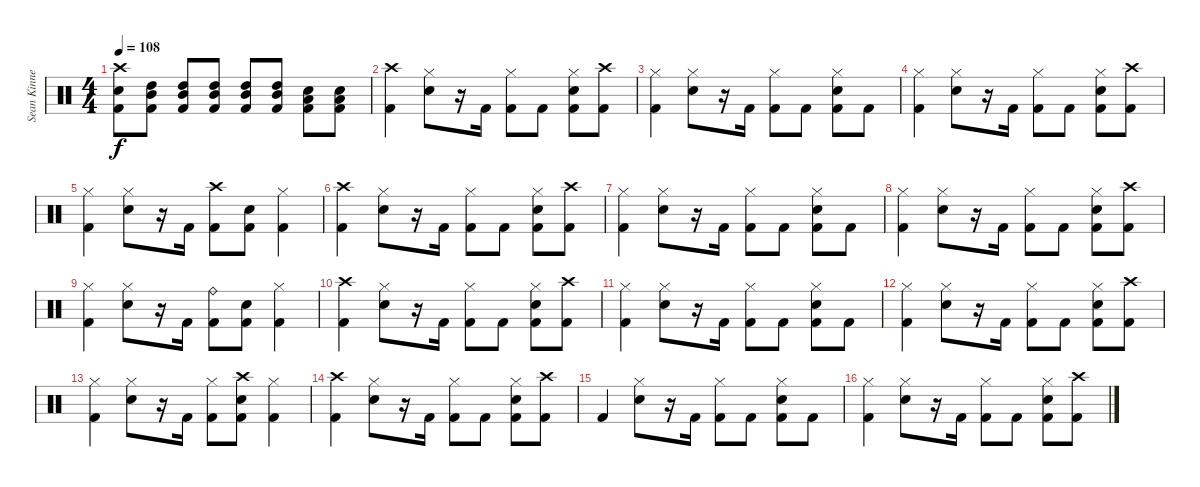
\track ("Sean Kinney - Drums" "Sean Kinne") {instrument percussion}
\staff {score}
\articulation defaults
\ts (4 4)
\tempo 108
\clef neutral
\ks c
("Crash high (hit)" "Electric Snare (hit)" "Kick (hit) 2").8{dy f} ("Mid Tom (hit)" "High Tom (hit)" "Kick (hit) 2").8 ("Mid Tom (hit)" "High Tom (hit)" "Kick (hit) 2").8 ("Mid Tom (hit)" "High Tom (hit)" "Kick (hit) 2").8 ("Mid Tom (hit)" "High Tom (hit)" "Kick (hit) 2").8 ("Mid Tom (hit)" "High Tom (hit)" "Kick (hit) 2").8 ("Electric Snare (hit)" "Low Tom (hit)" "Kick (hit) 2").8 ("Electric Snare (hit)" "Low Tom (hit)" "Kick (hit) 2").8 |
("Crash high (hit)" "Kick (hit) 2").4 ("Hi-Hat (closed)" "Electric Snare (hit)").8 r.16 "Kick (hit) 2".16 ("Hi-Hat (closed)" "Kick (hit) 2").8 "Kick (hit) 2".8 ("Hi-Hat (closed)" "Electric Snare (hit)" "Kick (hit) 2").8 ("Crash high (hit)" "Kick (hit) 2").8 |
("Hi-Hat (closed)" "Kick (hit) 2").4 ("Hi-Hat (closed)" "Electric Snare (hit)").8 r.16 "Kick (hit) 2".16 ("Hi-Hat (closed)" "Kick (hit) 2").8 "Kick (hit) 2".8 ("Hi-Hat (closed)" "Electric Snare (hit)" "Kick (hit) 2").8 "Kick (hit) 2".8 |
("Hi-Hat (closed)" "Kick (hit) 2").4 ("Hi-Hat (closed)" "Electric Snare (hit)").8 r.16 "Kick (hit) 2".16 ("Hi-Hat (closed)" "Kick (hit) 2").8 "Kick (hit) 2".8 ("Hi-Hat (closed)" "Electric Snare (hit)" "Kick (hit) 2").8 ("Crash high (hit)" "Kick (hit) 2").8 |
("Hi-Hat (closed)" "Kick (hit) 2").4 ("Hi-Hat (closed)" "Electric Snare (hit)").8 r.16 "Kick (hit) 2".16 ("Crash high (hit)" "Kick (hit) 2").8 ("Electric Snare (hit)" "Kick (hit) 2").8 ("Hi-Hat (closed)" "Kick (hit) 2").4 |
("Crash high (hit)" "Kick (hit) 2").4 ("Hi-Hat (closed)" "Electric Snare (hit)").8 r.16 "Kick (hit) 2".16 ("Hi-Hat (closed)" "Kick (hit) 2").8 "Kick (hit) 2".8 ("Hi-Hat (closed)" "Electric Snare (hit)" "Kick (hit) 2").8 ("Crash high (hit)" "Kick (hit) 2").8 |
("Hi-Hat (closed)" "Kick (hit) 2").4 ("Hi-Hat (closed)" "Electric Snare (hit)").8 r.16 "Kick (hit) 2".16 ("Hi-Hat (closed)" "Kick (hit) 2").8 "Kick (hit) 2".8 ("Hi-Hat (closed)" "Electric Snare (hit)" "Kick (hit) 2").8 "Kick (hit) 2".8 |
("Hi-Hat (closed)" "Kick (hit) 2").4 ("Hi-Hat (closed)" "Electric Snare (hit)").8 r.16 "Kick (hit) 2".16 ("Hi-Hat (closed)" "Kick (hit) 2").8 "Kick (hit) 2".8 ("Hi-Hat (closed)" "Electric Snare (hit)" "Kick (hit) 2").8 ("Crash high (hit)" "Kick (hit) 2").8 |
("Hi-Hat (closed)" "Kick (hit) 2").4 ("Hi-Hat (closed)" "Electric Snare (hit)").8 r.16 "Kick (hit) 2".16 ("Ride (bell)" "Kick (hit) 2").8 ("Electric Snare (hit)" "Kick (hit) 2").8 ("Hi-Hat (closed)" "Kick (hit) 2").4 |
("Crash high (hit)" "Kick (hit) 2").4 ("Hi-Hat (closed)" "Electric Snare (hit)").8 r.16 "Kick (hit) 2".16 ("Hi-Hat (closed)" "Kick (hit) 2").8 "Kick (hit) 2".8 ("Hi-Hat (closed)" "Electric Snare (hit)" "Kick (hit) 2").8 ("Crash high (hit)" "Kick (hit) 2").8 |
("Hi-Hat (closed)" "Kick (hit) 2").4 ("Hi-Hat (closed)" "Electric Snare (hit)").8 r.16 "Kick (hit) 2".16 ("Hi-Hat (closed)" "Kick (hit) 2").8 "Kick (hit) 2".8 ("Hi-Hat (closed)" "Electric Snare (hit)" "Kick (hit) 2").8 "Kick (hit) 2".8 |
("Hi-Hat (closed)" "Kick (hit) 2").4 ("Hi-Hat (closed)" "Electric Snare (hit)").8 r.16 "Kick (hit) 2".16 ("Hi-Hat (closed)" "Kick (hit) 2").8 "Kick (hit) 2".8 ("Hi-Hat (closed)" "Electric Snare (hit)" "Kick (hit) 2").8 ("Crash high (hit)" "Kick (hit) 2").8 |
("Hi-Hat (closed)" "Kick (hit) 2").4 ("Hi-Hat (closed)" "Electric Snare (hit)").8 r.16 "Kick (hit) 2".16 ("Hi-Hat (closed)" "Kick (hit) 2").8 ("Crash high (hit)" "Electric Snare (hit)" "Kick (hit) 2").8 ("Hi-Hat (closed)" "Kick (hit) 2").4 |
("Crash high (hit)" "Kick (hit) 2").4 ("Hi-Hat (closed)" "Electric Snare (hit)").8 r.16 "Kick (hit) 2".16 ("Hi-Hat (closed)" "Kick (hit) 2").8 "Kick (hit) 2".8 ("Hi-Hat (closed)" "Electric Snare (hit)" "Kick (hit) 2").8 ("Crash high (hit)" "Kick (hit) 2").8 |
"Kick (hit) 2".4 ("Hi-Hat (closed)" "Electric Snare (hit)").8 r.16 "Kick (hit) 2".16 ("Hi-Hat (closed)" "Kick (hit) 2").8 "Kick (hit) 2".8 ("Hi-Hat (closed)" "Electric Snare (hit)" "Kick (hit) 2").8 "Kick (hit) 2".8 |
("Hi-Hat (closed)" "Kick (hit) 2").4 ("Hi-Hat (closed)" "Electric Snare (hit)").8 r.16 "Kick (hit) 2".16 ("Hi-Hat (closed)" "Kick (hit) 2").8 "Kick (hit) 2".8 ("Hi-Hat (closed)" "Electric Snare (hit)" "Kick (hit) 2").8 ("Crash high (hit)" "Kick (hit) 2").8
